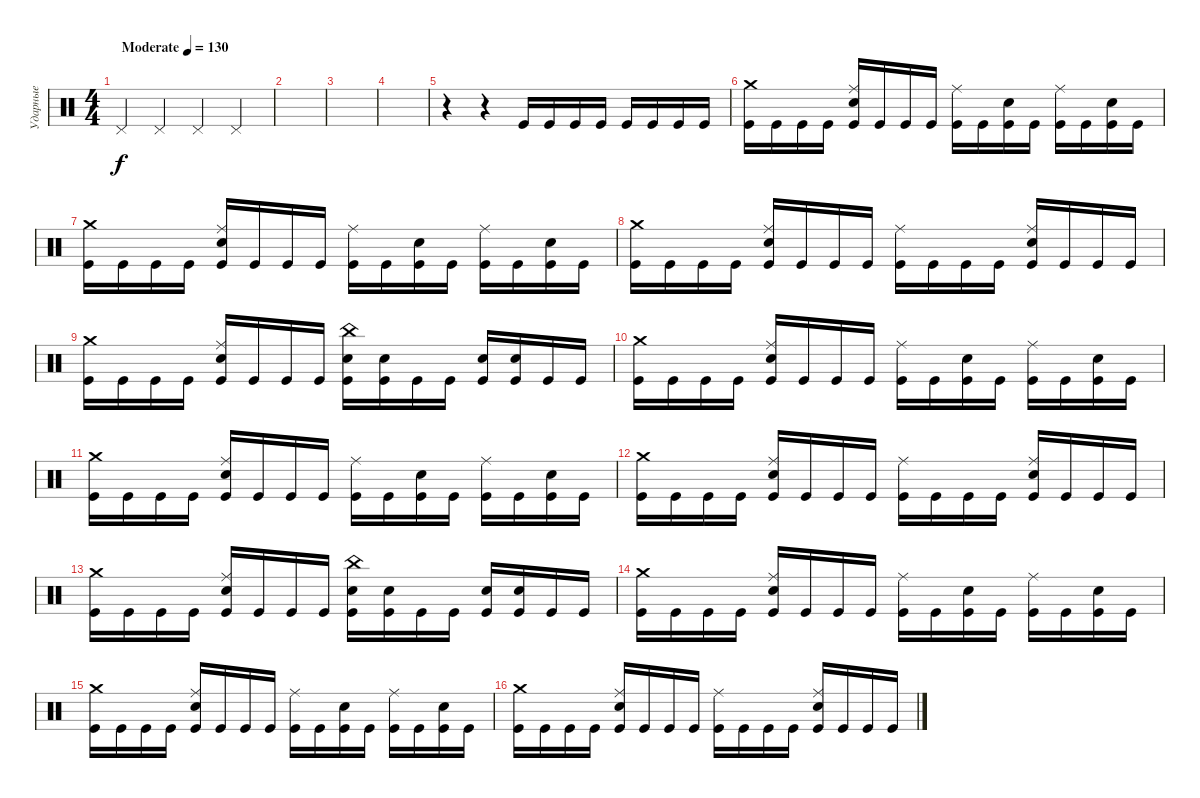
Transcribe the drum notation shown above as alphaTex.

\track ("Ударные" "Ударные") {instrument percussion}
\staff {score}
\articulation defaults
\ts (4 4)
\tempo (130 "Moderate")
\clef neutral
\ks c "Pedal Hi-Hat (hit)".4{dy f} "Pedal Hi-Hat (hit)".4 "Pedal Hi-Hat (hit)".4 "Pedal Hi-Hat (hit)".4
|
|
|
|
r.4 r.4 "Kick (hit)".16 "Kick (hit)".16 "Kick (hit)".16 "Kick (hit)".16 "Kick (hit)".16 "Kick (hit)".16 "Kick (hit)".16 "Kick (hit)".16 |
("Crash medium (hit)" "Kick (hit)").16 "Kick (hit)".16 "Kick (hit)".16 "Kick (hit)".16 ("Ride (middle)" "Electric Snare (hit)" "Kick (hit)").16 "Kick (hit)".16 "Kick (hit)".16 "Kick (hit)".16 ("Ride (middle)" "Kick (hit)").16 "Kick (hit)".16 ("Electric Snare (hit)" "Kick (hit)").16 "Kick (hit)".16 ("Ride (middle)" "Kick (hit)").16 "Kick (hit)".16 ("Electric Snare (hit)" "Kick (hit)").16 "Kick (hit)".16 |
("Crash medium (hit)" "Kick (hit)").16 "Kick (hit)".16 "Kick (hit)".16 "Kick (hit)".16 ("Ride (middle)" "Electric Snare (hit)" "Kick (hit)").16 "Kick (hit)".16 "Kick (hit)".16 "Kick (hit)".16 ("Ride (middle)" "Kick (hit)").16 "Kick (hit)".16 ("Electric Snare (hit)" "Kick (hit)").16 "Kick (hit)".16 ("Ride (middle)" "Kick (hit)").16 "Kick (hit)".16 ("Electric Snare (hit)" "Kick (hit)").16 "Kick (hit)".16 |
("Crash medium (hit)" "Kick (hit)").16 "Kick (hit)".16 "Kick (hit)".16 "Kick (hit)".16 ("Ride (middle)" "Electric Snare (hit)" "Kick (hit)").16 "Kick (hit)".16 "Kick (hit)".16 "Kick (hit)".16 ("Ride (middle)" "Kick (hit)").16 "Kick (hit)".16 "Kick (hit)".16 "Kick (hit)".16 ("Ride (middle)" "Electric Snare (hit)" "Kick (hit)").16 "Kick (hit)".16 "Kick (hit)".16 "Kick (hit)".16 |
("Crash medium (hit)" "Kick (hit)").16 "Kick (hit)".16 "Kick (hit)".16 "Kick (hit)".16 ("Ride (middle)" "Electric Snare (hit)" "Kick (hit)").16 "Kick (hit)".16 "Kick (hit)".16 "Kick (hit)".16 ("China (hit)" "Electric Snare (hit)" "Kick (hit)").16 ("Electric Snare (hit)" "Kick (hit)").16 "Kick (hit)".16 "Kick (hit)".16 ("Electric Snare (hit)" "Kick (hit)").16 ("Electric Snare (hit)" "Kick (hit)").16 "Kick (hit)".16 "Kick (hit)".16 |
("Crash medium (hit)" "Kick (hit)").16 "Kick (hit)".16 "Kick (hit)".16 "Kick (hit)".16 ("Ride (middle)" "Electric Snare (hit)" "Kick (hit)").16 "Kick (hit)".16 "Kick (hit)".16 "Kick (hit)".16 ("Ride (middle)" "Kick (hit)").16 "Kick (hit)".16 ("Electric Snare (hit)" "Kick (hit)").16 "Kick (hit)".16 ("Ride (middle)" "Kick (hit)").16 "Kick (hit)".16 ("Electric Snare (hit)" "Kick (hit)").16 "Kick (hit)".16 |
("Crash medium (hit)" "Kick (hit)").16 "Kick (hit)".16 "Kick (hit)".16 "Kick (hit)".16 ("Ride (middle)" "Electric Snare (hit)" "Kick (hit)").16 "Kick (hit)".16 "Kick (hit)".16 "Kick (hit)".16 ("Ride (middle)" "Kick (hit)").16 "Kick (hit)".16 ("Electric Snare (hit)" "Kick (hit)").16 "Kick (hit)".16 ("Ride (middle)" "Kick (hit)").16 "Kick (hit)".16 ("Electric Snare (hit)" "Kick (hit)").16 "Kick (hit)".16 |
("Crash medium (hit)" "Kick (hit)").16 "Kick (hit)".16 "Kick (hit)".16 "Kick (hit)".16 ("Ride (middle)" "Electric Snare (hit)" "Kick (hit)").16 "Kick (hit)".16 "Kick (hit)".16 "Kick (hit)".16 ("Ride (middle)" "Kick (hit)").16 "Kick (hit)".16 "Kick (hit)".16 "Kick (hit)".16 ("Ride (middle)" "Electric Snare (hit)" "Kick (hit)").16 "Kick (hit)".16 "Kick (hit)".16 "Kick (hit)".16 |
("Crash medium (hit)" "Kick (hit)").16 "Kick (hit)".16 "Kick (hit)".16 "Kick (hit)".16 ("Ride (middle)" "Electric Snare (hit)" "Kick (hit)").16 "Kick (hit)".16 "Kick (hit)".16 "Kick (hit)".16 ("China (hit)" "Electric Snare (hit)" "Kick (hit)").16 ("Electric Snare (hit)" "Kick (hit)").16 "Kick (hit)".16 "Kick (hit)".16 ("Electric Snare (hit)" "Kick (hit)").16 ("Electric Snare (hit)" "Kick (hit)").16 "Kick (hit)".16 "Kick (hit)".16 |
("Crash medium (hit)" "Kick (hit)").16 "Kick (hit)".16 "Kick (hit)".16 "Kick (hit)".16 ("Ride (middle)" "Electric Snare (hit)" "Kick (hit)").16 "Kick (hit)".16 "Kick (hit)".16 "Kick (hit)".16 ("Ride (middle)" "Kick (hit)").16 "Kick (hit)".16 ("Electric Snare (hit)" "Kick (hit)").16 "Kick (hit)".16 ("Ride (middle)" "Kick (hit)").16 "Kick (hit)".16 ("Electric Snare (hit)" "Kick (hit)").16 "Kick (hit)".16 |
("Crash medium (hit)" "Kick (hit)").16 "Kick (hit)".16 "Kick (hit)".16 "Kick (hit)".16 ("Ride (middle)" "Electric Snare (hit)" "Kick (hit)").16 "Kick (hit)".16 "Kick (hit)".16 "Kick (hit)".16 ("Ride (middle)" "Kick (hit)").16 "Kick (hit)".16 ("Electric Snare (hit)" "Kick (hit)").16 "Kick (hit)".16 ("Ride (middle)" "Kick (hit)").16 "Kick (hit)".16 ("Electric Snare (hit)" "Kick (hit)").16 "Kick (hit)".16 |
("Crash medium (hit)" "Kick (hit)").16 "Kick (hit)".16 "Kick (hit)".16 "Kick (hit)".16 ("Ride (middle)" "Electric Snare (hit)" "Kick (hit)").16 "Kick (hit)".16 "Kick (hit)".16 "Kick (hit)".16 ("Ride (middle)" "Kick (hit)").16 "Kick (hit)".16 "Kick (hit)".16 "Kick (hit)".16 ("Ride (middle)" "Electric Snare (hit)" "Kick (hit)").16 "Kick (hit)".16 "Kick (hit)".16 "Kick (hit)".16
